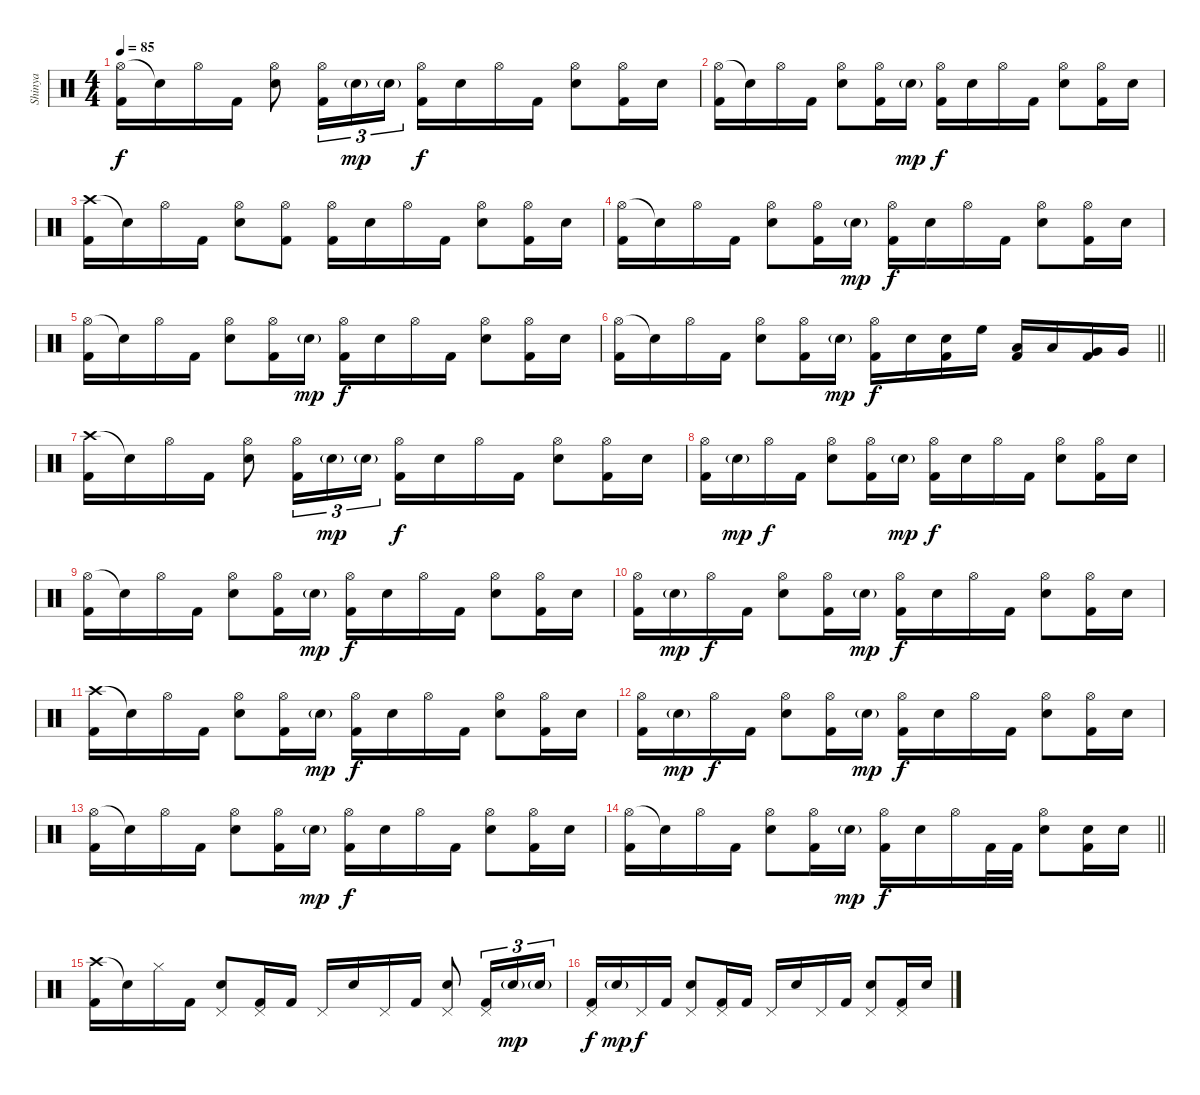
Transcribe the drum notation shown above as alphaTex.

\track ("Shinya" "Shinya") {instrument percussion}
\staff {score}
\articulation defaults
\ts (4 4)
\tempo 85
\clef neutral
\ks c
("Hi-Hat (open)" "Kick (hit) 2").16{dy f} "Snare (hit)"{t}.16 "Hi-Hat (open)".16 "Kick (hit) 2".16 ("Hi-Hat (open)" "Electric Snare (hit)").8 ("Hi-Hat (open)" "Kick (hit) 2").16{tu (3 2)} "Electric Snare (hit)"{g}.16{tu (3 2) dy mp} "Electric Snare (hit)"{g}.16{tu (3 2)} ("Hi-Hat (open)" "Kick (hit) 2").16{dy f} "Electric Snare (hit)".16 "Hi-Hat (open)".16 "Kick (hit) 2".16 ("Hi-Hat (open)" "Electric Snare (hit)").8 ("Hi-Hat (open)" "Kick (hit) 2").16 "Electric Snare (hit)".16 |
("Hi-Hat (open)" "Kick (hit) 2").16 "Snare (hit)"{t}.16 "Hi-Hat (open)".16 "Kick (hit) 2".16 ("Hi-Hat (open)" "Electric Snare (hit)").8 ("Hi-Hat (open)" "Kick (hit) 2").16 "Electric Snare (hit)"{g}.16{dy mp} ("Hi-Hat (open)" "Kick (hit) 2").16{dy f} "Electric Snare (hit)".16 "Hi-Hat (open)".16 "Kick (hit) 2".16 ("Hi-Hat (open)" "Electric Snare (hit)").8 ("Hi-Hat (open)" "Kick (hit) 2").16 "Electric Snare (hit)".16 |
("Crash high (hit)" "Kick (hit) 2").16 "Snare (hit)"{t}.16 "Hi-Hat (open)".16 "Kick (hit) 2".16 ("Hi-Hat (open)" "Electric Snare (hit)").8 ("Hi-Hat (open)" "Kick (hit) 2").8 ("Hi-Hat (open)" "Kick (hit) 2").16 "Electric Snare (hit)".16 "Hi-Hat (open)".16 "Kick (hit) 2".16 ("Hi-Hat (open)" "Electric Snare (hit)").8 ("Hi-Hat (open)" "Kick (hit) 2").16 "Electric Snare (hit)".16 |
("Hi-Hat (open)" "Kick (hit) 2").16 "Snare (hit)"{t}.16 "Hi-Hat (open)".16 "Kick (hit) 2".16 ("Hi-Hat (open)" "Electric Snare (hit)").8 ("Hi-Hat (open)" "Kick (hit) 2").16 "Electric Snare (hit)"{g}.16{dy mp} ("Hi-Hat (open)" "Kick (hit) 2").16{dy f} "Electric Snare (hit)".16 "Hi-Hat (open)".16 "Kick (hit) 2".16 ("Hi-Hat (open)" "Electric Snare (hit)").8 ("Hi-Hat (open)" "Kick (hit) 2").16 "Electric Snare (hit)".16 |
("Hi-Hat (open)" "Kick (hit) 2").16 "Snare (hit)"{t}.16 "Hi-Hat (open)".16 "Kick (hit) 2".16 ("Hi-Hat (open)" "Electric Snare (hit)").8 ("Hi-Hat (open)" "Kick (hit) 2").16 "Electric Snare (hit)"{g}.16{dy mp} ("Hi-Hat (open)" "Kick (hit) 2").16{dy f} "Electric Snare (hit)".16 "Hi-Hat (open)".16 "Kick (hit) 2".16 ("Hi-Hat (open)" "Electric Snare (hit)").8 ("Hi-Hat (open)" "Kick (hit) 2").16 "Electric Snare (hit)".16 |
\barLineRight lightlight
("Hi-Hat (open)" "Kick (hit) 2").16 "Snare (hit)"{t}.16 "Hi-Hat (open)".16 "Kick (hit) 2".16 ("Hi-Hat (open)" "Electric Snare (hit)").8 ("Hi-Hat (open)" "Kick (hit) 2").16 "Electric Snare (hit)"{g}.16{dy mp} ("Hi-Hat (open)" "Kick (hit) 2").16{dy f} "Electric Snare (hit)".16 ("Electric Snare (hit)" "Kick (hit) 2").16 "High Floor Tom (hit)".16 ("Low Tom (hit)" "Kick (hit) 2").16 "Low Tom (hit)".16 ("Very Low Tom (hit)" "Kick (hit) 2").16 "Very Low Tom (hit)".16 |
("Crash high (hit)" "Kick (hit) 2").16 "Snare (hit)"{t}.16 "Hi-Hat (open)".16 "Kick (hit) 2".16 ("Hi-Hat (open)" "Electric Snare (hit)").8 ("Hi-Hat (open)" "Kick (hit) 2").16{tu (3 2)} "Electric Snare (hit)"{g}.16{tu (3 2) dy mp} "Electric Snare (hit)"{g}.16{tu (3 2)} ("Hi-Hat (open)" "Kick (hit) 2").16{dy f} "Electric Snare (hit)".16 "Hi-Hat (open)".16 "Kick (hit) 2".16 ("Hi-Hat (open)" "Electric Snare (hit)").8 ("Hi-Hat (open)" "Kick (hit) 2").16 "Electric Snare (hit)".16 |
("Hi-Hat (open)" "Kick (hit) 2").16 "Electric Snare (hit)"{g}.16{dy mp} "Hi-Hat (open)".16{dy f} "Kick (hit) 2".16 ("Hi-Hat (open)" "Electric Snare (hit)").8 ("Hi-Hat (open)" "Kick (hit) 2").16 "Electric Snare (hit)"{g}.16{dy mp} ("Hi-Hat (open)" "Kick (hit) 2").16{dy f} "Electric Snare (hit)".16 "Hi-Hat (open)".16 "Kick (hit) 2".16 ("Hi-Hat (open)" "Electric Snare (hit)").8 ("Hi-Hat (open)" "Kick (hit) 2").16 "Electric Snare (hit)".16 |
("Hi-Hat (open)" "Kick (hit) 2").16 "Snare (hit)"{t}.16 "Hi-Hat (open)".16 "Kick (hit) 2".16 ("Hi-Hat (open)" "Electric Snare (hit)").8 ("Hi-Hat (open)" "Kick (hit) 2").16 "Electric Snare (hit)"{g}.16{dy mp} ("Hi-Hat (open)" "Kick (hit) 2").16{dy f} "Electric Snare (hit)".16 "Hi-Hat (open)".16 "Kick (hit) 2".16 ("Hi-Hat (open)" "Electric Snare (hit)").8 ("Hi-Hat (open)" "Kick (hit) 2").16 "Electric Snare (hit)".16 |
("Hi-Hat (open)" "Kick (hit) 2").16 "Electric Snare (hit)"{g}.16{dy mp} "Hi-Hat (open)".16{dy f} "Kick (hit) 2".16 ("Hi-Hat (open)" "Electric Snare (hit)").8 ("Hi-Hat (open)" "Kick (hit) 2").16 "Electric Snare (hit)"{g}.16{dy mp} ("Hi-Hat (open)" "Kick (hit) 2").16{dy f} "Electric Snare (hit)".16 "Hi-Hat (open)".16 "Kick (hit) 2".16 ("Hi-Hat (open)" "Electric Snare (hit)").8 ("Hi-Hat (open)" "Kick (hit) 2").16 "Electric Snare (hit)".16 |
("Crash high (hit)" "Kick (hit) 2").16 "Snare (hit)"{t}.16 "Hi-Hat (open)".16 "Kick (hit) 2".16 ("Hi-Hat (open)" "Electric Snare (hit)").8 ("Hi-Hat (open)" "Kick (hit) 2").16 "Electric Snare (hit)"{g}.16{dy mp} ("Hi-Hat (open)" "Kick (hit) 2").16{dy f} "Electric Snare (hit)".16 "Hi-Hat (open)".16 "Kick (hit) 2".16 ("Hi-Hat (open)" "Electric Snare (hit)").8 ("Hi-Hat (open)" "Kick (hit) 2").16 "Electric Snare (hit)".16 |
("Hi-Hat (open)" "Kick (hit) 2").16 "Electric Snare (hit)"{g}.16{dy mp} "Hi-Hat (open)".16{dy f} "Kick (hit) 2".16 ("Hi-Hat (open)" "Electric Snare (hit)").8 ("Hi-Hat (open)" "Kick (hit) 2").16 "Electric Snare (hit)"{g}.16{dy mp} ("Hi-Hat (open)" "Kick (hit) 2").16{dy f} "Electric Snare (hit)".16 "Hi-Hat (open)".16 "Kick (hit) 2".16 ("Hi-Hat (open)" "Electric Snare (hit)").8 ("Hi-Hat (open)" "Kick (hit) 2").16 "Electric Snare (hit)".16 |
("Hi-Hat (open)" "Kick (hit) 2").16 "Snare (hit)"{t}.16 "Hi-Hat (open)".16 "Kick (hit) 2".16 ("Hi-Hat (open)" "Electric Snare (hit)").8 ("Hi-Hat (open)" "Kick (hit) 2").16 "Electric Snare (hit)"{g}.16{dy mp} ("Hi-Hat (open)" "Kick (hit) 2").16{dy f} "Electric Snare (hit)".16 "Hi-Hat (open)".16 "Kick (hit) 2".16 ("Hi-Hat (open)" "Electric Snare (hit)").8 ("Hi-Hat (open)" "Kick (hit) 2").16 "Electric Snare (hit)".16 |
\barLineRight lightlight
("Hi-Hat (open)" "Kick (hit) 2").16 "Snare (hit)"{t}.16 "Hi-Hat (open)".16 "Kick (hit) 2".16 ("Hi-Hat (open)" "Electric Snare (hit)").8 ("Hi-Hat (open)" "Kick (hit) 2").16 "Electric Snare (hit)"{g}.16{dy mp} ("Hi-Hat (open)" "Kick (hit) 2").16{dy f} "Electric Snare (hit)".16 "Hi-Hat (open)".16 "Kick (hit) 2".32 "Kick (hit) 2".32 ("Hi-Hat (open)" "Electric Snare (hit)").8 ("Electric Snare (hit)" "Kick (hit) 2").16 "Electric Snare (hit)".16 |
("Crash high (hit)" "Kick (hit) 2").16 "Snare (hit)"{t}.16 "Hi-Hat (closed)".16 "Kick (hit) 2".16 ("Pedal Hi-Hat (hit)" "Electric Snare (hit)").8 ("Pedal Hi-Hat (hit)" "Kick (hit) 2").16 "Kick (hit) 2".16 "Pedal Hi-Hat (hit)".16 "Electric Snare (hit)".16 "Pedal Hi-Hat (hit)".16 "Kick (hit) 2".16 ("Pedal Hi-Hat (hit)" "Electric Snare (hit)").8 ("Pedal Hi-Hat (hit)" "Kick (hit) 2").16{tu (3 2)} "Electric Snare (hit)"{g}.16{tu (3 2) dy mp} "Electric Snare (hit)"{g}.16{tu (3 2)} |
("Pedal Hi-Hat (hit)" "Kick (hit) 2").16{dy f} "Electric Snare (hit)"{g}.16{dy mp} "Pedal Hi-Hat (hit)".16{dy f} "Kick (hit) 2".16 ("Pedal Hi-Hat (hit)" "Electric Snare (hit)").8 ("Pedal Hi-Hat (hit)" "Kick (hit) 2").16 "Kick (hit) 2".16 "Pedal Hi-Hat (hit)".16 "Electric Snare (hit)".16 "Pedal Hi-Hat (hit)".16 "Kick (hit) 2".16 ("Pedal Hi-Hat (hit)" "Electric Snare (hit)").8 ("Pedal Hi-Hat (hit)" "Kick (hit) 2").16 "Electric Snare (hit)".16
